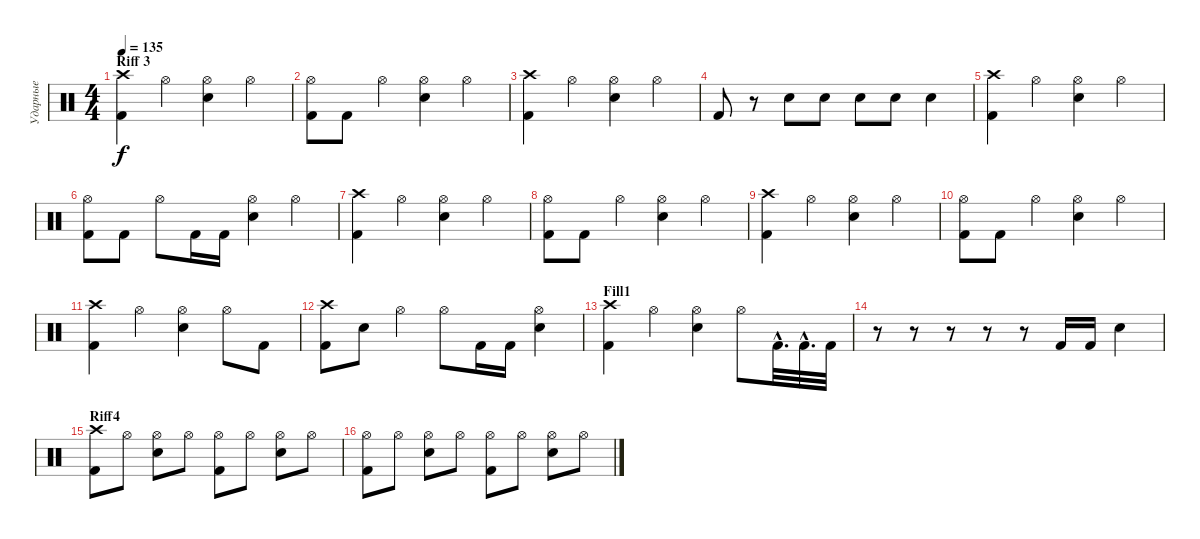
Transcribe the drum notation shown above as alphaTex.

\track ("Ударные" "Ударные") {instrument percussion}
\staff {score}
\articulation defaults
\ts (4 4)
\section ("" "Riff 3")
\tempo 135
\clef neutral
\ks c
("Crash high (hit)" "Kick (hit) 2").4{dy f} "Hi-Hat (open)".4 ("Hi-Hat (open)" "Electric Snare (hit)").4 "Hi-Hat (open)".4 |
("Hi-Hat (open)" "Kick (hit) 2").8 "Kick (hit) 2".8 "Hi-Hat (open)".4 ("Hi-Hat (open)" "Electric Snare (hit)").4 "Hi-Hat (open)".4 |
("Crash high (hit)" "Kick (hit) 2").4 "Hi-Hat (open)".4 ("Hi-Hat (open)" "Electric Snare (hit)").4 "Hi-Hat (open)".4 |
"Kick (hit) 2".8 r.8 "Electric Snare (hit)".8 "Electric Snare (hit)".8 "Electric Snare (hit)".8 "Electric Snare (hit)".8 "Electric Snare (hit)".4 |
("Crash high (hit)" "Kick (hit) 2").4 "Hi-Hat (open)".4 ("Hi-Hat (open)" "Electric Snare (hit)").4 "Hi-Hat (open)".4 |
("Hi-Hat (open)" "Kick (hit) 2").8 "Kick (hit) 2".8 "Hi-Hat (open)".8 "Kick (hit) 2".16 "Kick (hit) 2".16 ("Hi-Hat (open)" "Electric Snare (hit)").4 "Hi-Hat (open)".4 |
("Crash high (hit)" "Kick (hit) 2").4 "Hi-Hat (open)".4 ("Hi-Hat (open)" "Electric Snare (hit)").4 "Hi-Hat (open)".4 |
("Hi-Hat (open)" "Kick (hit) 2").8 "Kick (hit) 2".8 "Hi-Hat (open)".4 ("Hi-Hat (open)" "Electric Snare (hit)").4 "Hi-Hat (open)".4 |
("Crash high (hit)" "Kick (hit) 2").4 "Hi-Hat (open)".4 ("Hi-Hat (open)" "Electric Snare (hit)").4 "Hi-Hat (open)".4 |
("Hi-Hat (open)" "Kick (hit) 2").8 "Kick (hit) 2".8 "Hi-Hat (open)".4 ("Hi-Hat (open)" "Electric Snare (hit)").4 "Hi-Hat (open)".4 |
("Crash high (hit)" "Kick (hit) 2").4 "Hi-Hat (open)".4 ("Hi-Hat (open)" "Electric Snare (hit)").4 "Hi-Hat (open)".8 "Kick (hit) 2".8 |
("Crash high (hit)" "Kick (hit) 2").8 "Electric Snare (hit)".8 "Hi-Hat (open)".4 "Hi-Hat (open)".8 "Kick (hit) 2".16 "Kick (hit) 2".16 ("Hi-Hat (open)" "Electric Snare (hit)").4 |
\section ("" "Fill1")
("Crash high (hit)" "Kick (hit) 2").4 "Hi-Hat (open)".4 ("Hi-Hat (open)" "Electric Snare (hit)").4 "Hi-Hat (open)".8 "Kick (hit) 2"{hac}.32{d} "Kick (hit) 2"{hac}.32{d} "Kick (hit) 2".32 |
r.8 r.8 r.8 r.8 r.8 "Kick (hit) 2".16 "Kick (hit) 2".16 "Electric Snare (hit)".4 |
\section ("" "Riff4")
("Crash high (hit)" "Kick (hit) 2").8 "Hi-Hat (open)".8 ("Hi-Hat (open)" "Electric Snare (hit)").8 "Hi-Hat (open)".8 ("Hi-Hat (open)" "Kick (hit) 2").8 "Hi-Hat (open)".8 ("Hi-Hat (open)" "Electric Snare (hit)").8 "Hi-Hat (open)".8 |
("Hi-Hat (open)" "Kick (hit) 2").8 "Hi-Hat (open)".8 ("Hi-Hat (open)" "Electric Snare (hit)").8 "Hi-Hat (open)".8 ("Hi-Hat (open)" "Kick (hit) 2").8 "Hi-Hat (open)".8 ("Hi-Hat (open)" "Electric Snare (hit)").8 "Hi-Hat (open)".8
